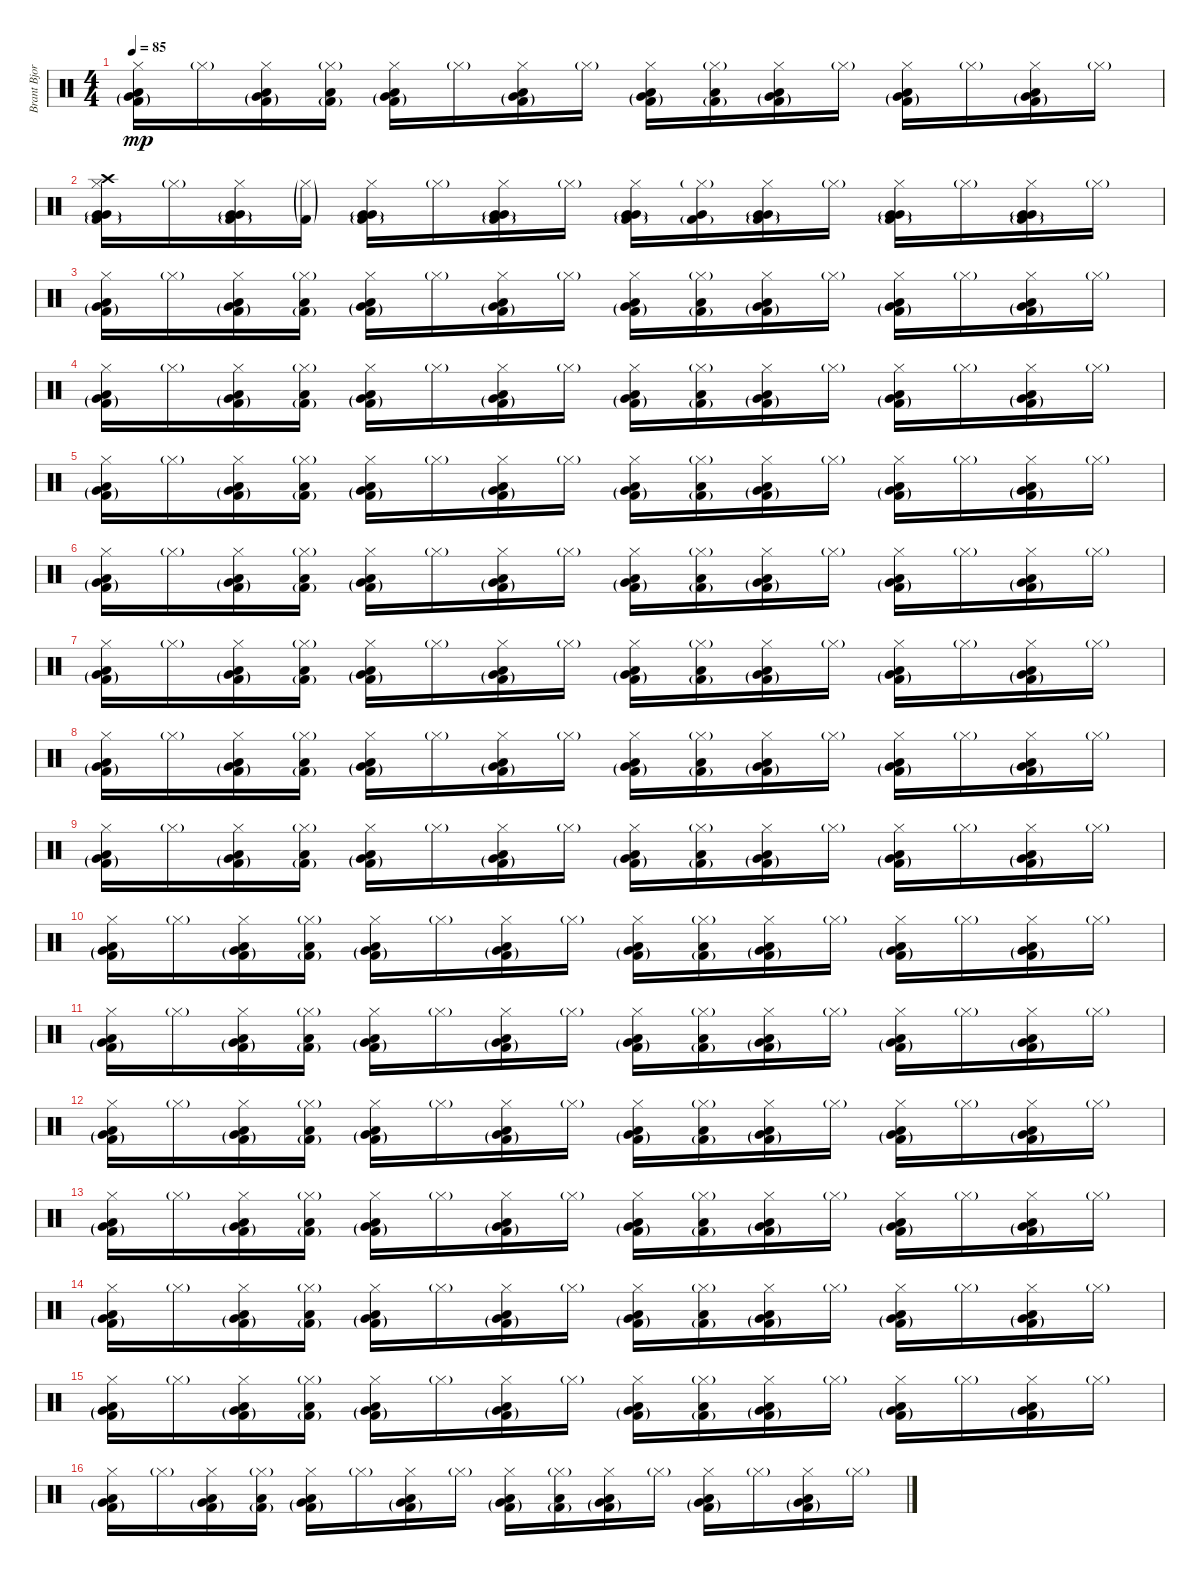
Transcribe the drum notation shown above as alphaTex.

\track ("Brant Bjork" "Brant Bjor") {instrument percussion}
\staff {score}
\articulation defaults
\ts (4 4)
\tempo 85
\clef neutral
\ks c
("Very Low Tom (hit)"{g} "Low Tom (hit)" "Kick (hit) 2"{g} "Hi-Hat (closed)").16{dy mp} "Hi-Hat (closed)"{g}.16 ("Very Low Tom (hit)"{g} "Low Tom (hit)" "Kick (hit) 2"{g} "Hi-Hat (closed)").16 ("Low Tom (hit)" "Kick (hit) 2"{g} "Hi-Hat (closed)"{g}).16 ("Very Low Tom (hit)"{g} "Low Tom (hit)" "Kick (hit) 2"{g} "Hi-Hat (closed)").16 "Hi-Hat (closed)"{g}.16 ("Very Low Tom (hit)"{g} "Low Tom (hit)" "Kick (hit) 2"{g} "Hi-Hat (closed)").16 "Hi-Hat (closed)"{g}.16 ("Very Low Tom (hit)"{g} "Low Tom (hit)" "Kick (hit) 2"{g} "Hi-Hat (closed)").16 ("Low Tom (hit)" "Kick (hit) 2"{g} "Hi-Hat (closed)"{g}).16 ("Very Low Tom (hit)"{g} "Low Tom (hit)" "Kick (hit) 2"{g} "Hi-Hat (closed)").16 "Hi-Hat (closed)"{g}.16 ("Very Low Tom (hit)"{g} "Low Tom (hit)" "Kick (hit) 2"{g} "Hi-Hat (closed)").16 "Hi-Hat (closed)"{g}.16 ("Very Low Tom (hit)"{g} "Low Tom (hit)" "Kick (hit) 2"{g} "Hi-Hat (closed)").16 "Hi-Hat (closed)"{g}.16 |
("Crash high (hit)" "Very Low Tom (hit)"{g} "Very Low Tom (hit)" "Kick (hit) 2"{g} "Hi-Hat (closed)").16 "Hi-Hat (closed)"{g}.16 ("Very Low Tom (hit)"{g} "Very Low Tom (hit)" "Kick (hit) 2"{g} "Hi-Hat (closed)").16 ("Kick (hit) 2"{g} "Hi-Hat (closed)"{g}).16 ("Very Low Tom (hit)"{g} "Very Low Tom (hit)" "Kick (hit) 2"{g} "Hi-Hat (closed)").16 "Hi-Hat (closed)"{g}.16 ("Very Low Tom (hit)"{g} "Very Low Tom (hit)" "Kick (hit) 2"{g} "Hi-Hat (closed)").16 "Hi-Hat (closed)"{g}.16 ("Very Low Tom (hit)"{g} "Very Low Tom (hit)" "Kick (hit) 2"{g} "Hi-Hat (closed)").16 ("Very Low Tom (hit)" "Kick (hit) 2"{g} "Hi-Hat (closed)"{g}).16 ("Very Low Tom (hit)"{g} "Very Low Tom (hit)" "Kick (hit) 2"{g} "Hi-Hat (closed)").16 "Hi-Hat (closed)"{g}.16 ("Very Low Tom (hit)"{g} "Very Low Tom (hit)" "Kick (hit) 2"{g} "Hi-Hat (closed)").16 "Hi-Hat (closed)"{g}.16 ("Very Low Tom (hit)"{g} "Very Low Tom (hit)" "Kick (hit) 2"{g} "Hi-Hat (closed)").16 "Hi-Hat (closed)"{g}.16 |
("Very Low Tom (hit)"{g} "Low Tom (hit)" "Kick (hit) 2"{g} "Hi-Hat (closed)").16 "Hi-Hat (closed)"{g}.16 ("Very Low Tom (hit)"{g} "Low Tom (hit)" "Kick (hit) 2"{g} "Hi-Hat (closed)").16 ("Low Tom (hit)" "Kick (hit) 2"{g} "Hi-Hat (closed)"{g}).16 ("Very Low Tom (hit)"{g} "Low Tom (hit)" "Kick (hit) 2"{g} "Hi-Hat (closed)").16 "Hi-Hat (closed)"{g}.16 ("Very Low Tom (hit)"{g} "Low Tom (hit)" "Kick (hit) 2"{g} "Hi-Hat (closed)").16 "Hi-Hat (closed)"{g}.16 ("Very Low Tom (hit)"{g} "Low Tom (hit)" "Kick (hit) 2"{g} "Hi-Hat (closed)").16 ("Low Tom (hit)" "Kick (hit) 2"{g} "Hi-Hat (closed)"{g}).16 ("Very Low Tom (hit)"{g} "Low Tom (hit)" "Kick (hit) 2"{g} "Hi-Hat (closed)").16 "Hi-Hat (closed)"{g}.16 ("Very Low Tom (hit)"{g} "Low Tom (hit)" "Kick (hit) 2"{g} "Hi-Hat (closed)").16 "Hi-Hat (closed)"{g}.16 ("Very Low Tom (hit)"{g} "Low Tom (hit)" "Kick (hit) 2"{g} "Hi-Hat (closed)").16 "Hi-Hat (closed)"{g}.16 |
("Very Low Tom (hit)"{g} "Low Tom (hit)" "Kick (hit) 2"{g} "Hi-Hat (closed)").16 "Hi-Hat (closed)"{g}.16 ("Very Low Tom (hit)"{g} "Low Tom (hit)" "Kick (hit) 2"{g} "Hi-Hat (closed)").16 ("Low Tom (hit)" "Kick (hit) 2"{g} "Hi-Hat (closed)"{g}).16 ("Very Low Tom (hit)"{g} "Low Tom (hit)" "Kick (hit) 2"{g} "Hi-Hat (closed)").16 "Hi-Hat (closed)"{g}.16 ("Very Low Tom (hit)"{g} "Low Tom (hit)" "Kick (hit) 2"{g} "Hi-Hat (closed)").16 "Hi-Hat (closed)"{g}.16 ("Very Low Tom (hit)"{g} "Low Tom (hit)" "Kick (hit) 2"{g} "Hi-Hat (closed)").16 ("Low Tom (hit)" "Kick (hit) 2"{g} "Hi-Hat (closed)"{g}).16 ("Very Low Tom (hit)"{g} "Low Tom (hit)" "Kick (hit) 2"{g} "Hi-Hat (closed)").16 "Hi-Hat (closed)"{g}.16 ("Very Low Tom (hit)"{g} "Low Tom (hit)" "Kick (hit) 2"{g} "Hi-Hat (closed)").16 "Hi-Hat (closed)"{g}.16 ("Very Low Tom (hit)"{g} "Low Tom (hit)" "Kick (hit) 2"{g} "Hi-Hat (closed)").16 "Hi-Hat (closed)"{g}.16 |
("Very Low Tom (hit)"{g} "Low Tom (hit)" "Kick (hit) 2"{g} "Hi-Hat (closed)").16 "Hi-Hat (closed)"{g}.16 ("Very Low Tom (hit)"{g} "Low Tom (hit)" "Kick (hit) 2"{g} "Hi-Hat (closed)").16 ("Low Tom (hit)" "Kick (hit) 2"{g} "Hi-Hat (closed)"{g}).16 ("Very Low Tom (hit)"{g} "Low Tom (hit)" "Kick (hit) 2"{g} "Hi-Hat (closed)").16 "Hi-Hat (closed)"{g}.16 ("Very Low Tom (hit)"{g} "Low Tom (hit)" "Kick (hit) 2"{g} "Hi-Hat (closed)").16 "Hi-Hat (closed)"{g}.16 ("Very Low Tom (hit)"{g} "Low Tom (hit)" "Kick (hit) 2"{g} "Hi-Hat (closed)").16 ("Low Tom (hit)" "Kick (hit) 2"{g} "Hi-Hat (closed)"{g}).16 ("Very Low Tom (hit)"{g} "Low Tom (hit)" "Kick (hit) 2"{g} "Hi-Hat (closed)").16 "Hi-Hat (closed)"{g}.16 ("Very Low Tom (hit)"{g} "Low Tom (hit)" "Kick (hit) 2"{g} "Hi-Hat (closed)").16 "Hi-Hat (closed)"{g}.16 ("Very Low Tom (hit)"{g} "Low Tom (hit)" "Kick (hit) 2"{g} "Hi-Hat (closed)").16 "Hi-Hat (closed)"{g}.16 |
("Very Low Tom (hit)"{g} "Low Tom (hit)" "Kick (hit) 2"{g} "Hi-Hat (closed)").16 "Hi-Hat (closed)"{g}.16 ("Very Low Tom (hit)"{g} "Low Tom (hit)" "Kick (hit) 2"{g} "Hi-Hat (closed)").16 ("Low Tom (hit)" "Kick (hit) 2"{g} "Hi-Hat (closed)"{g}).16 ("Very Low Tom (hit)"{g} "Low Tom (hit)" "Kick (hit) 2"{g} "Hi-Hat (closed)").16 "Hi-Hat (closed)"{g}.16 ("Very Low Tom (hit)"{g} "Low Tom (hit)" "Kick (hit) 2"{g} "Hi-Hat (closed)").16 "Hi-Hat (closed)"{g}.16 ("Very Low Tom (hit)"{g} "Low Tom (hit)" "Kick (hit) 2"{g} "Hi-Hat (closed)").16 ("Low Tom (hit)" "Kick (hit) 2"{g} "Hi-Hat (closed)"{g}).16 ("Very Low Tom (hit)"{g} "Low Tom (hit)" "Kick (hit) 2"{g} "Hi-Hat (closed)").16 "Hi-Hat (closed)"{g}.16 ("Very Low Tom (hit)"{g} "Low Tom (hit)" "Kick (hit) 2"{g} "Hi-Hat (closed)").16 "Hi-Hat (closed)"{g}.16 ("Very Low Tom (hit)"{g} "Low Tom (hit)" "Kick (hit) 2"{g} "Hi-Hat (closed)").16 "Hi-Hat (closed)"{g}.16 |
("Very Low Tom (hit)"{g} "Low Tom (hit)" "Kick (hit) 2"{g} "Hi-Hat (closed)").16 "Hi-Hat (closed)"{g}.16 ("Very Low Tom (hit)"{g} "Low Tom (hit)" "Kick (hit) 2"{g} "Hi-Hat (closed)").16 ("Low Tom (hit)" "Kick (hit) 2"{g} "Hi-Hat (closed)"{g}).16 ("Very Low Tom (hit)"{g} "Low Tom (hit)" "Kick (hit) 2"{g} "Hi-Hat (closed)").16 "Hi-Hat (closed)"{g}.16 ("Very Low Tom (hit)"{g} "Low Tom (hit)" "Kick (hit) 2"{g} "Hi-Hat (closed)").16 "Hi-Hat (closed)"{g}.16 ("Very Low Tom (hit)"{g} "Low Tom (hit)" "Kick (hit) 2"{g} "Hi-Hat (closed)").16 ("Low Tom (hit)" "Kick (hit) 2"{g} "Hi-Hat (closed)"{g}).16 ("Very Low Tom (hit)"{g} "Low Tom (hit)" "Kick (hit) 2"{g} "Hi-Hat (closed)").16 "Hi-Hat (closed)"{g}.16 ("Very Low Tom (hit)"{g} "Low Tom (hit)" "Kick (hit) 2"{g} "Hi-Hat (closed)").16 "Hi-Hat (closed)"{g}.16 ("Very Low Tom (hit)"{g} "Low Tom (hit)" "Kick (hit) 2"{g} "Hi-Hat (closed)").16 "Hi-Hat (closed)"{g}.16 |
("Very Low Tom (hit)"{g} "Low Tom (hit)" "Kick (hit) 2"{g} "Hi-Hat (closed)").16 "Hi-Hat (closed)"{g}.16 ("Very Low Tom (hit)"{g} "Low Tom (hit)" "Kick (hit) 2"{g} "Hi-Hat (closed)").16 ("Low Tom (hit)" "Kick (hit) 2"{g} "Hi-Hat (closed)"{g}).16 ("Very Low Tom (hit)"{g} "Low Tom (hit)" "Kick (hit) 2"{g} "Hi-Hat (closed)").16 "Hi-Hat (closed)"{g}.16 ("Very Low Tom (hit)"{g} "Low Tom (hit)" "Kick (hit) 2"{g} "Hi-Hat (closed)").16 "Hi-Hat (closed)"{g}.16 ("Very Low Tom (hit)"{g} "Low Tom (hit)" "Kick (hit) 2"{g} "Hi-Hat (closed)").16 ("Low Tom (hit)" "Kick (hit) 2"{g} "Hi-Hat (closed)"{g}).16 ("Very Low Tom (hit)"{g} "Low Tom (hit)" "Kick (hit) 2"{g} "Hi-Hat (closed)").16 "Hi-Hat (closed)"{g}.16 ("Very Low Tom (hit)"{g} "Low Tom (hit)" "Kick (hit) 2"{g} "Hi-Hat (closed)").16 "Hi-Hat (closed)"{g}.16 ("Very Low Tom (hit)"{g} "Low Tom (hit)" "Kick (hit) 2"{g} "Hi-Hat (closed)").16 "Hi-Hat (closed)"{g}.16 |
("Very Low Tom (hit)"{g} "Low Tom (hit)" "Kick (hit) 2"{g} "Hi-Hat (closed)").16 "Hi-Hat (closed)"{g}.16 ("Very Low Tom (hit)"{g} "Low Tom (hit)" "Kick (hit) 2"{g} "Hi-Hat (closed)").16 ("Low Tom (hit)" "Kick (hit) 2"{g} "Hi-Hat (closed)"{g}).16 ("Very Low Tom (hit)"{g} "Low Tom (hit)" "Kick (hit) 2"{g} "Hi-Hat (closed)").16 "Hi-Hat (closed)"{g}.16 ("Very Low Tom (hit)"{g} "Low Tom (hit)" "Kick (hit) 2"{g} "Hi-Hat (closed)").16 "Hi-Hat (closed)"{g}.16 ("Very Low Tom (hit)"{g} "Low Tom (hit)" "Kick (hit) 2"{g} "Hi-Hat (closed)").16 ("Low Tom (hit)" "Kick (hit) 2"{g} "Hi-Hat (closed)"{g}).16 ("Very Low Tom (hit)"{g} "Low Tom (hit)" "Kick (hit) 2"{g} "Hi-Hat (closed)").16 "Hi-Hat (closed)"{g}.16 ("Very Low Tom (hit)"{g} "Low Tom (hit)" "Kick (hit) 2"{g} "Hi-Hat (closed)").16 "Hi-Hat (closed)"{g}.16 ("Very Low Tom (hit)"{g} "Low Tom (hit)" "Kick (hit) 2"{g} "Hi-Hat (closed)").16 "Hi-Hat (closed)"{g}.16 |
("Very Low Tom (hit)"{g} "Low Tom (hit)" "Kick (hit) 2"{g} "Hi-Hat (closed)").16 "Hi-Hat (closed)"{g}.16 ("Very Low Tom (hit)"{g} "Low Tom (hit)" "Kick (hit) 2"{g} "Hi-Hat (closed)").16 ("Low Tom (hit)" "Kick (hit) 2"{g} "Hi-Hat (closed)"{g}).16 ("Very Low Tom (hit)"{g} "Low Tom (hit)" "Kick (hit) 2"{g} "Hi-Hat (closed)").16 "Hi-Hat (closed)"{g}.16 ("Very Low Tom (hit)"{g} "Low Tom (hit)" "Kick (hit) 2"{g} "Hi-Hat (closed)").16 "Hi-Hat (closed)"{g}.16 ("Very Low Tom (hit)"{g} "Low Tom (hit)" "Kick (hit) 2"{g} "Hi-Hat (closed)").16 ("Low Tom (hit)" "Kick (hit) 2"{g} "Hi-Hat (closed)"{g}).16 ("Very Low Tom (hit)"{g} "Low Tom (hit)" "Kick (hit) 2"{g} "Hi-Hat (closed)").16 "Hi-Hat (closed)"{g}.16 ("Very Low Tom (hit)"{g} "Low Tom (hit)" "Kick (hit) 2"{g} "Hi-Hat (closed)").16 "Hi-Hat (closed)"{g}.16 ("Very Low Tom (hit)"{g} "Low Tom (hit)" "Kick (hit) 2"{g} "Hi-Hat (closed)").16 "Hi-Hat (closed)"{g}.16 |
("Very Low Tom (hit)"{g} "Low Tom (hit)" "Kick (hit) 2"{g} "Hi-Hat (closed)").16 "Hi-Hat (closed)"{g}.16 ("Very Low Tom (hit)"{g} "Low Tom (hit)" "Kick (hit) 2"{g} "Hi-Hat (closed)").16 ("Low Tom (hit)" "Kick (hit) 2"{g} "Hi-Hat (closed)"{g}).16 ("Very Low Tom (hit)"{g} "Low Tom (hit)" "Kick (hit) 2"{g} "Hi-Hat (closed)").16 "Hi-Hat (closed)"{g}.16 ("Very Low Tom (hit)"{g} "Low Tom (hit)" "Kick (hit) 2"{g} "Hi-Hat (closed)").16 "Hi-Hat (closed)"{g}.16 ("Very Low Tom (hit)"{g} "Low Tom (hit)" "Kick (hit) 2"{g} "Hi-Hat (closed)").16 ("Low Tom (hit)" "Kick (hit) 2"{g} "Hi-Hat (closed)"{g}).16 ("Very Low Tom (hit)"{g} "Low Tom (hit)" "Kick (hit) 2"{g} "Hi-Hat (closed)").16 "Hi-Hat (closed)"{g}.16 ("Very Low Tom (hit)"{g} "Low Tom (hit)" "Kick (hit) 2"{g} "Hi-Hat (closed)").16 "Hi-Hat (closed)"{g}.16 ("Very Low Tom (hit)"{g} "Low Tom (hit)" "Kick (hit) 2"{g} "Hi-Hat (closed)").16 "Hi-Hat (closed)"{g}.16 |
("Very Low Tom (hit)"{g} "Low Tom (hit)" "Kick (hit) 2"{g} "Hi-Hat (closed)").16 "Hi-Hat (closed)"{g}.16 ("Very Low Tom (hit)"{g} "Low Tom (hit)" "Kick (hit) 2"{g} "Hi-Hat (closed)").16 ("Low Tom (hit)" "Kick (hit) 2"{g} "Hi-Hat (closed)"{g}).16 ("Very Low Tom (hit)"{g} "Low Tom (hit)" "Kick (hit) 2"{g} "Hi-Hat (closed)").16 "Hi-Hat (closed)"{g}.16 ("Very Low Tom (hit)"{g} "Low Tom (hit)" "Kick (hit) 2"{g} "Hi-Hat (closed)").16 "Hi-Hat (closed)"{g}.16 ("Very Low Tom (hit)"{g} "Low Tom (hit)" "Kick (hit) 2"{g} "Hi-Hat (closed)").16 ("Low Tom (hit)" "Kick (hit) 2"{g} "Hi-Hat (closed)"{g}).16 ("Very Low Tom (hit)"{g} "Low Tom (hit)" "Kick (hit) 2"{g} "Hi-Hat (closed)").16 "Hi-Hat (closed)"{g}.16 ("Very Low Tom (hit)"{g} "Low Tom (hit)" "Kick (hit) 2"{g} "Hi-Hat (closed)").16 "Hi-Hat (closed)"{g}.16 ("Very Low Tom (hit)"{g} "Low Tom (hit)" "Kick (hit) 2"{g} "Hi-Hat (closed)").16 "Hi-Hat (closed)"{g}.16 |
("Very Low Tom (hit)"{g} "Low Tom (hit)" "Kick (hit) 2"{g} "Hi-Hat (closed)").16 "Hi-Hat (closed)"{g}.16 ("Very Low Tom (hit)"{g} "Low Tom (hit)" "Kick (hit) 2"{g} "Hi-Hat (closed)").16 ("Low Tom (hit)" "Kick (hit) 2"{g} "Hi-Hat (closed)"{g}).16 ("Very Low Tom (hit)"{g} "Low Tom (hit)" "Kick (hit) 2"{g} "Hi-Hat (closed)").16 "Hi-Hat (closed)"{g}.16 ("Very Low Tom (hit)"{g} "Low Tom (hit)" "Kick (hit) 2"{g} "Hi-Hat (closed)").16 "Hi-Hat (closed)"{g}.16 ("Very Low Tom (hit)"{g} "Low Tom (hit)" "Kick (hit) 2"{g} "Hi-Hat (closed)").16 ("Low Tom (hit)" "Kick (hit) 2"{g} "Hi-Hat (closed)"{g}).16 ("Very Low Tom (hit)"{g} "Low Tom (hit)" "Kick (hit) 2"{g} "Hi-Hat (closed)").16 "Hi-Hat (closed)"{g}.16 ("Very Low Tom (hit)"{g} "Low Tom (hit)" "Kick (hit) 2"{g} "Hi-Hat (closed)").16 "Hi-Hat (closed)"{g}.16 ("Very Low Tom (hit)"{g} "Low Tom (hit)" "Kick (hit) 2"{g} "Hi-Hat (closed)").16 "Hi-Hat (closed)"{g}.16 |
("Very Low Tom (hit)"{g} "Low Tom (hit)" "Kick (hit) 2"{g} "Hi-Hat (closed)").16 "Hi-Hat (closed)"{g}.16 ("Very Low Tom (hit)"{g} "Low Tom (hit)" "Kick (hit) 2"{g} "Hi-Hat (closed)").16 ("Low Tom (hit)" "Kick (hit) 2"{g} "Hi-Hat (closed)"{g}).16 ("Very Low Tom (hit)"{g} "Low Tom (hit)" "Kick (hit) 2"{g} "Hi-Hat (closed)").16 "Hi-Hat (closed)"{g}.16 ("Very Low Tom (hit)"{g} "Low Tom (hit)" "Kick (hit) 2"{g} "Hi-Hat (closed)").16 "Hi-Hat (closed)"{g}.16 ("Very Low Tom (hit)"{g} "Low Tom (hit)" "Kick (hit) 2"{g} "Hi-Hat (closed)").16 ("Low Tom (hit)" "Kick (hit) 2"{g} "Hi-Hat (closed)"{g}).16 ("Very Low Tom (hit)"{g} "Low Tom (hit)" "Kick (hit) 2"{g} "Hi-Hat (closed)").16 "Hi-Hat (closed)"{g}.16 ("Very Low Tom (hit)"{g} "Low Tom (hit)" "Kick (hit) 2"{g} "Hi-Hat (closed)").16 "Hi-Hat (closed)"{g}.16 ("Very Low Tom (hit)"{g} "Low Tom (hit)" "Kick (hit) 2"{g} "Hi-Hat (closed)").16 "Hi-Hat (closed)"{g}.16 |
("Very Low Tom (hit)"{g} "Low Tom (hit)" "Kick (hit) 2"{g} "Hi-Hat (closed)").16 "Hi-Hat (closed)"{g}.16 ("Very Low Tom (hit)"{g} "Low Tom (hit)" "Kick (hit) 2"{g} "Hi-Hat (closed)").16 ("Low Tom (hit)" "Kick (hit) 2"{g} "Hi-Hat (closed)"{g}).16 ("Very Low Tom (hit)"{g} "Low Tom (hit)" "Kick (hit) 2"{g} "Hi-Hat (closed)").16 "Hi-Hat (closed)"{g}.16 ("Very Low Tom (hit)"{g} "Low Tom (hit)" "Kick (hit) 2"{g} "Hi-Hat (closed)").16 "Hi-Hat (closed)"{g}.16 ("Very Low Tom (hit)"{g} "Low Tom (hit)" "Kick (hit) 2"{g} "Hi-Hat (closed)").16 ("Low Tom (hit)" "Kick (hit) 2"{g} "Hi-Hat (closed)"{g}).16 ("Very Low Tom (hit)"{g} "Low Tom (hit)" "Kick (hit) 2"{g} "Hi-Hat (closed)").16 "Hi-Hat (closed)"{g}.16 ("Very Low Tom (hit)"{g} "Low Tom (hit)" "Kick (hit) 2"{g} "Hi-Hat (closed)").16 "Hi-Hat (closed)"{g}.16 ("Very Low Tom (hit)"{g} "Low Tom (hit)" "Kick (hit) 2"{g} "Hi-Hat (closed)").16 "Hi-Hat (closed)"{g}.16 |
("Very Low Tom (hit)"{g} "Low Tom (hit)" "Kick (hit) 2"{g} "Hi-Hat (closed)").16 "Hi-Hat (closed)"{g}.16 ("Very Low Tom (hit)"{g} "Low Tom (hit)" "Kick (hit) 2"{g} "Hi-Hat (closed)").16 ("Low Tom (hit)" "Kick (hit) 2"{g} "Hi-Hat (closed)"{g}).16 ("Very Low Tom (hit)"{g} "Low Tom (hit)" "Kick (hit) 2"{g} "Hi-Hat (closed)").16 "Hi-Hat (closed)"{g}.16 ("Very Low Tom (hit)"{g} "Low Tom (hit)" "Kick (hit) 2"{g} "Hi-Hat (closed)").16 "Hi-Hat (closed)"{g}.16 ("Very Low Tom (hit)"{g} "Low Tom (hit)" "Kick (hit) 2"{g} "Hi-Hat (closed)").16 ("Low Tom (hit)" "Kick (hit) 2"{g} "Hi-Hat (closed)"{g}).16 ("Very Low Tom (hit)"{g} "Low Tom (hit)" "Kick (hit) 2"{g} "Hi-Hat (closed)").16 "Hi-Hat (closed)"{g}.16 ("Very Low Tom (hit)"{g} "Low Tom (hit)" "Kick (hit) 2"{g} "Hi-Hat (closed)").16 "Hi-Hat (closed)"{g}.16 ("Very Low Tom (hit)"{g} "Low Tom (hit)" "Kick (hit) 2"{g} "Hi-Hat (closed)").16 "Hi-Hat (closed)"{g}.16
